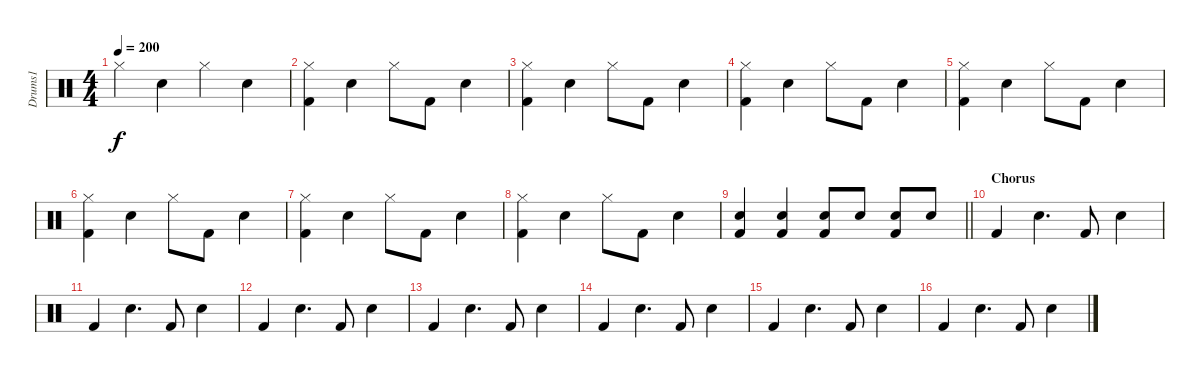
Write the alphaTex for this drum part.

\track ("Drums1" "Drums1") {instrument percussion}
\staff {score}
\articulation defaults
\ts (4 4)
\tempo 200
\clef neutral
\ks c "Hi-Hat (closed)".4{dy f} "Snare (hit) 2".4 "Hi-Hat (closed)".4 "Snare (hit) 2".4
|
("Kick (hit) 2" "Hi-Hat (closed)").4 "Snare (hit) 2".4 "Hi-Hat (closed)".8 "Kick (hit) 2".8 "Snare (hit) 2".4 |
("Kick (hit) 2" "Hi-Hat (closed)").4 "Snare (hit) 2".4 "Hi-Hat (closed)".8 "Kick (hit) 2".8 "Snare (hit) 2".4 |
("Kick (hit) 2" "Hi-Hat (closed)").4 "Snare (hit) 2".4 "Hi-Hat (closed)".8 "Kick (hit) 2".8 "Snare (hit) 2".4 |
("Kick (hit) 2" "Hi-Hat (closed)").4 "Snare (hit) 2".4 "Hi-Hat (closed)".8 "Kick (hit) 2".8 "Snare (hit) 2".4 |
("Kick (hit) 2" "Hi-Hat (closed)").4 "Snare (hit) 2".4 "Hi-Hat (closed)".8 "Kick (hit) 2".8 "Snare (hit) 2".4 |
("Kick (hit) 2" "Hi-Hat (closed)").4 "Snare (hit) 2".4 "Hi-Hat (closed)".8 "Kick (hit) 2".8 "Snare (hit) 2".4 |
("Kick (hit) 2" "Hi-Hat (closed)").4 "Snare (hit) 2".4 "Hi-Hat (closed)".8 "Kick (hit) 2".8 "Snare (hit) 2".4 |
\barLineRight lightlight
("Kick (hit) 2" "Snare (hit) 2").4 ("Kick (hit) 2" "Snare (hit) 2").4 ("Kick (hit) 2" "Snare (hit) 2").8 "Snare (hit) 2".8 ("Kick (hit) 2" "Snare (hit) 2").8 "Snare (hit) 2".8 |
\section ("" "Chorus")
"Kick (hit) 2".4 "Snare (hit) 2".4{d} "Kick (hit) 2".8 "Snare (hit) 2".4 |
"Kick (hit) 2".4 "Snare (hit) 2".4{d} "Kick (hit) 2".8 "Snare (hit) 2".4 |
"Kick (hit) 2".4 "Snare (hit) 2".4{d} "Kick (hit) 2".8 "Snare (hit) 2".4 |
"Kick (hit) 2".4 "Snare (hit) 2".4{d} "Kick (hit) 2".8 "Snare (hit) 2".4 |
"Kick (hit) 2".4 "Snare (hit) 2".4{d} "Kick (hit) 2".8 "Snare (hit) 2".4 |
"Kick (hit) 2".4 "Snare (hit) 2".4{d} "Kick (hit) 2".8 "Snare (hit) 2".4 |
"Kick (hit) 2".4 "Snare (hit) 2".4{d} "Kick (hit) 2".8 "Snare (hit) 2".4
